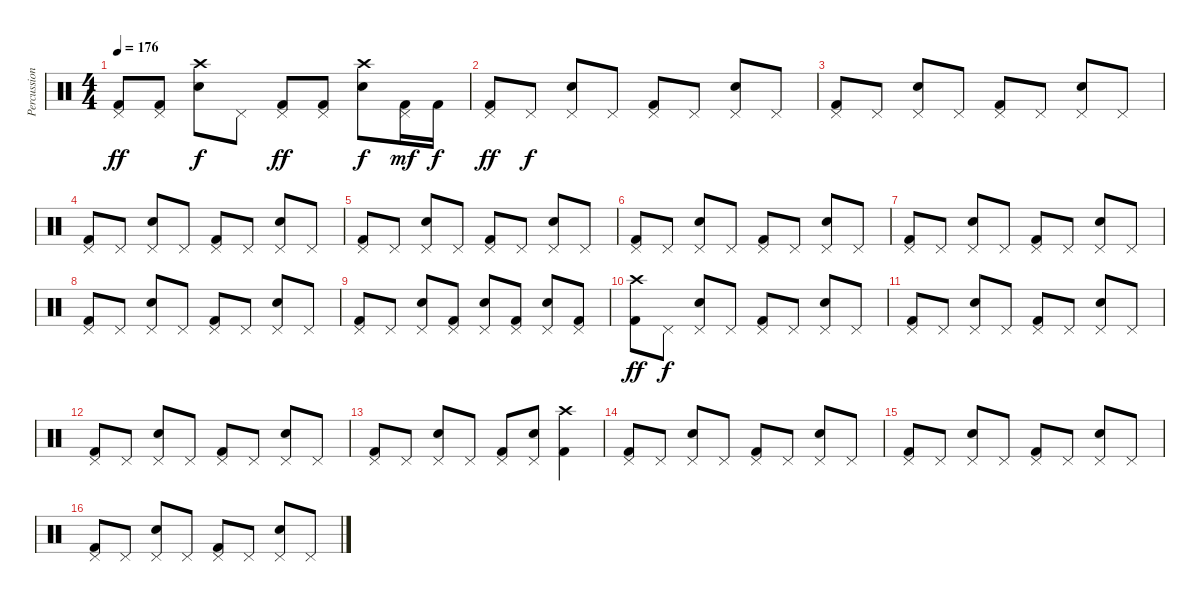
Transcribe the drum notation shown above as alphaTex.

\track ("Percussions" "Percussion") {instrument percussion}
\staff {score}
\articulation defaults
\ts (4 4)
\tempo 176
\clef neutral
\ks c
("Pedal Hi-Hat (hit)" "Kick (hit) 2").8{dy ff} ("Pedal Hi-Hat (hit)" "Kick (hit) 2").8 ("Crash high (hit)" "Electric Snare (hit)").8{dy f} "Pedal Hi-Hat (hit)".8 ("Pedal Hi-Hat (hit)" "Kick (hit) 2").8{dy ff} ("Pedal Hi-Hat (hit)" "Kick (hit) 2").8 ("Crash high (hit)" "Electric Snare (hit)").8{dy f} ("Pedal Hi-Hat (hit)" "Kick (hit) 2").16{dy mf} "Kick (hit) 2".16{dy f} |
("Pedal Hi-Hat (hit)" "Kick (hit) 2").8{dy ff} "Pedal Hi-Hat (hit)".8{dy f} ("Pedal Hi-Hat (hit)" "Electric Snare (hit)").8 "Pedal Hi-Hat (hit)".8 ("Pedal Hi-Hat (hit)" "Kick (hit) 2").8 "Pedal Hi-Hat (hit)".8 ("Pedal Hi-Hat (hit)" "Electric Snare (hit)").8 "Pedal Hi-Hat (hit)".8 |
("Pedal Hi-Hat (hit)" "Kick (hit) 2").8 "Pedal Hi-Hat (hit)".8 ("Pedal Hi-Hat (hit)" "Electric Snare (hit)").8 "Pedal Hi-Hat (hit)".8 ("Pedal Hi-Hat (hit)" "Kick (hit) 2").8 "Pedal Hi-Hat (hit)".8 ("Pedal Hi-Hat (hit)" "Electric Snare (hit)").8 "Pedal Hi-Hat (hit)".8 |
("Pedal Hi-Hat (hit)" "Kick (hit) 2").8 "Pedal Hi-Hat (hit)".8 ("Pedal Hi-Hat (hit)" "Electric Snare (hit)").8 "Pedal Hi-Hat (hit)".8 ("Pedal Hi-Hat (hit)" "Kick (hit) 2").8 "Pedal Hi-Hat (hit)".8 ("Pedal Hi-Hat (hit)" "Electric Snare (hit)").8 "Pedal Hi-Hat (hit)".8 |
("Pedal Hi-Hat (hit)" "Kick (hit) 2").8 "Pedal Hi-Hat (hit)".8 ("Pedal Hi-Hat (hit)" "Electric Snare (hit)").8 "Pedal Hi-Hat (hit)".8 ("Pedal Hi-Hat (hit)" "Kick (hit) 2").8 "Pedal Hi-Hat (hit)".8 ("Pedal Hi-Hat (hit)" "Electric Snare (hit)").8 "Pedal Hi-Hat (hit)".8 |
("Pedal Hi-Hat (hit)" "Kick (hit) 2").8 "Pedal Hi-Hat (hit)".8 ("Pedal Hi-Hat (hit)" "Electric Snare (hit)").8 "Pedal Hi-Hat (hit)".8 ("Pedal Hi-Hat (hit)" "Kick (hit) 2").8 "Pedal Hi-Hat (hit)".8 ("Pedal Hi-Hat (hit)" "Electric Snare (hit)").8 "Pedal Hi-Hat (hit)".8 |
("Pedal Hi-Hat (hit)" "Kick (hit) 2").8 "Pedal Hi-Hat (hit)".8 ("Pedal Hi-Hat (hit)" "Electric Snare (hit)").8 "Pedal Hi-Hat (hit)".8 ("Pedal Hi-Hat (hit)" "Kick (hit) 2").8 "Pedal Hi-Hat (hit)".8 ("Pedal Hi-Hat (hit)" "Electric Snare (hit)").8 "Pedal Hi-Hat (hit)".8 |
("Pedal Hi-Hat (hit)" "Kick (hit) 2").8 "Pedal Hi-Hat (hit)".8 ("Pedal Hi-Hat (hit)" "Electric Snare (hit)").8 "Pedal Hi-Hat (hit)".8 ("Pedal Hi-Hat (hit)" "Kick (hit) 2").8 "Pedal Hi-Hat (hit)".8 ("Pedal Hi-Hat (hit)" "Electric Snare (hit)").8 "Pedal Hi-Hat (hit)".8 |
("Pedal Hi-Hat (hit)" "Kick (hit) 2").8 "Pedal Hi-Hat (hit)".8 ("Pedal Hi-Hat (hit)" "Electric Snare (hit)").8 ("Pedal Hi-Hat (hit)" "Kick (hit) 2").8 ("Pedal Hi-Hat (hit)" "Electric Snare (hit)").8 ("Pedal Hi-Hat (hit)" "Kick (hit) 2").8 ("Pedal Hi-Hat (hit)" "Electric Snare (hit)").8 ("Pedal Hi-Hat (hit)" "Kick (hit) 2").8 |
("Crash high (hit)" "Kick (hit) 2").8{dy ff} "Pedal Hi-Hat (hit)".8{dy f} ("Pedal Hi-Hat (hit)" "Electric Snare (hit)").8 "Pedal Hi-Hat (hit)".8 ("Pedal Hi-Hat (hit)" "Kick (hit) 2").8 "Pedal Hi-Hat (hit)".8 ("Pedal Hi-Hat (hit)" "Electric Snare (hit)").8 "Pedal Hi-Hat (hit)".8 |
("Pedal Hi-Hat (hit)" "Kick (hit) 2").8 "Pedal Hi-Hat (hit)".8 ("Pedal Hi-Hat (hit)" "Electric Snare (hit)").8 "Pedal Hi-Hat (hit)".8 ("Pedal Hi-Hat (hit)" "Kick (hit) 2").8 "Pedal Hi-Hat (hit)".8 ("Pedal Hi-Hat (hit)" "Electric Snare (hit)").8 "Pedal Hi-Hat (hit)".8 |
("Pedal Hi-Hat (hit)" "Kick (hit) 2").8 "Pedal Hi-Hat (hit)".8 ("Pedal Hi-Hat (hit)" "Electric Snare (hit)").8 "Pedal Hi-Hat (hit)".8 ("Pedal Hi-Hat (hit)" "Kick (hit) 2").8 "Pedal Hi-Hat (hit)".8 ("Pedal Hi-Hat (hit)" "Electric Snare (hit)").8 "Pedal Hi-Hat (hit)".8 |
("Pedal Hi-Hat (hit)" "Kick (hit) 2").8 "Pedal Hi-Hat (hit)".8 ("Pedal Hi-Hat (hit)" "Electric Snare (hit)").8 "Pedal Hi-Hat (hit)".8 ("Pedal Hi-Hat (hit)" "Kick (hit) 2").8 ("Pedal Hi-Hat (hit)" "Electric Snare (hit)").8 ("Crash high (hit)" "Kick (hit) 2").4 |
("Pedal Hi-Hat (hit)" "Kick (hit) 2").8 "Pedal Hi-Hat (hit)".8 ("Pedal Hi-Hat (hit)" "Electric Snare (hit)").8 "Pedal Hi-Hat (hit)".8 ("Pedal Hi-Hat (hit)" "Kick (hit) 2").8 "Pedal Hi-Hat (hit)".8 ("Pedal Hi-Hat (hit)" "Electric Snare (hit)").8 "Pedal Hi-Hat (hit)".8 |
("Pedal Hi-Hat (hit)" "Kick (hit) 2").8 "Pedal Hi-Hat (hit)".8 ("Pedal Hi-Hat (hit)" "Electric Snare (hit)").8 "Pedal Hi-Hat (hit)".8 ("Pedal Hi-Hat (hit)" "Kick (hit) 2").8 "Pedal Hi-Hat (hit)".8 ("Pedal Hi-Hat (hit)" "Electric Snare (hit)").8 "Pedal Hi-Hat (hit)".8 |
("Pedal Hi-Hat (hit)" "Kick (hit) 2").8 "Pedal Hi-Hat (hit)".8 ("Pedal Hi-Hat (hit)" "Electric Snare (hit)").8 "Pedal Hi-Hat (hit)".8 ("Pedal Hi-Hat (hit)" "Kick (hit) 2").8 "Pedal Hi-Hat (hit)".8 ("Pedal Hi-Hat (hit)" "Electric Snare (hit)").8 "Pedal Hi-Hat (hit)".8
